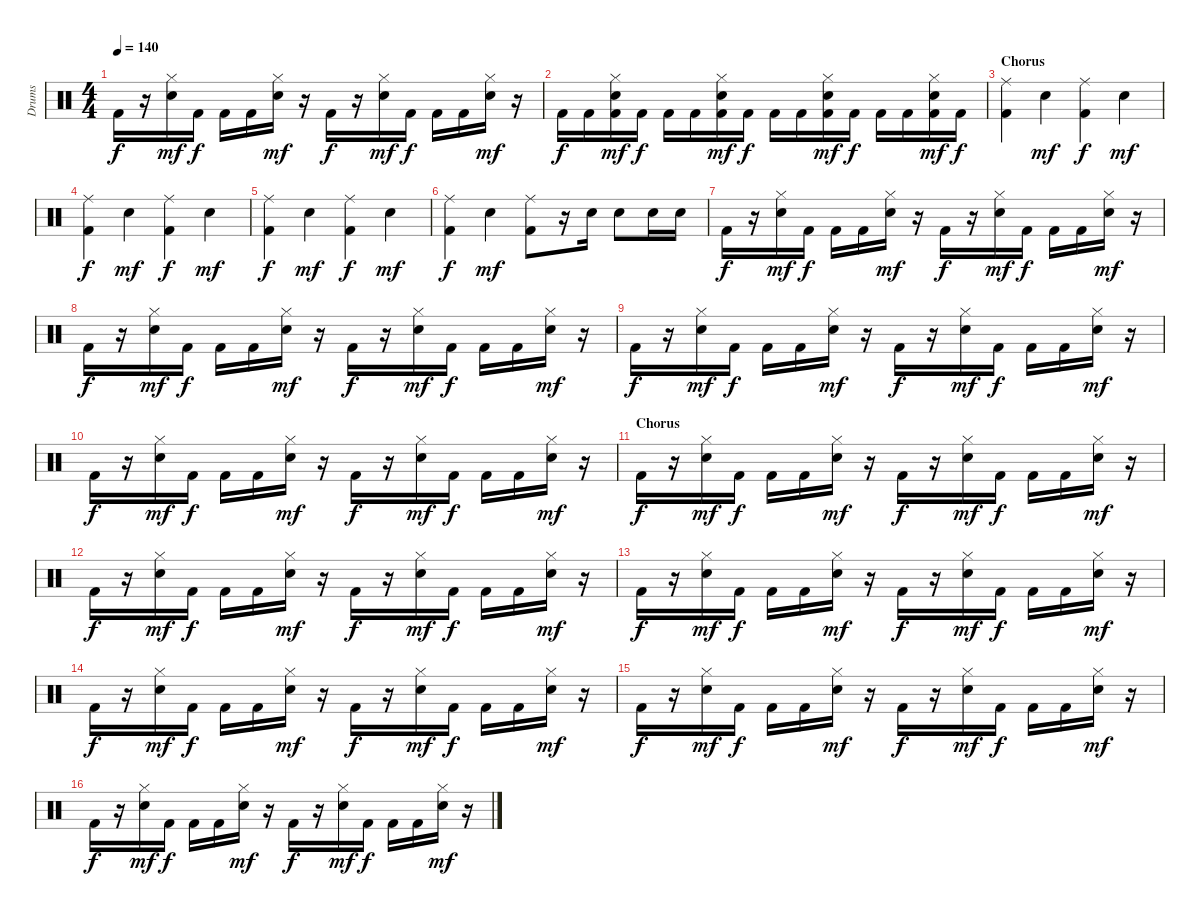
\track ("Drums" "Drums") {instrument percussion}
\staff {score}
\articulation defaults
\ts (4 4)
\tempo 140
\clef neutral
\ks c "Kick (hit) 2".16{dy f}
r.16 ("Snare (hit) 2" "Hi-Hat (closed)").16{dy mf} "Kick (hit) 2".16{dy f} "Kick (hit) 2".16 "Kick (hit) 2".16 ("Snare (hit) 2" "Hi-Hat (closed)").16{dy mf} r.16 "Kick (hit) 2".16{dy f} r.16 ("Snare (hit) 2" "Hi-Hat (closed)").16{dy mf} "Kick (hit) 2".16{dy f} "Kick (hit) 2".16 "Kick (hit) 2".16 ("Snare (hit) 2" "Hi-Hat (closed)").16{dy mf} r.16 |
"Kick (hit) 2".16{dy f} "Kick (hit) 2".16 ("Kick (hit) 2" "Snare (hit) 2" "Hi-Hat (closed)").16{dy mf} "Kick (hit) 2".16{dy f} "Kick (hit) 2".16 "Kick (hit) 2".16 ("Kick (hit) 2" "Snare (hit) 2" "Hi-Hat (closed)").16{dy mf} "Kick (hit) 2".16{dy f} "Kick (hit) 2".16 "Kick (hit) 2".16 ("Kick (hit) 2" "Snare (hit) 2" "Hi-Hat (closed)").16{dy mf} "Kick (hit) 2".16{dy f} "Kick (hit) 2".16 "Kick (hit) 2".16 ("Kick (hit) 2" "Snare (hit) 2" "Hi-Hat (closed)").16{dy mf} "Kick (hit) 2".16{dy f} |
\section ("" "Chorus")
("Kick (hit) 2" "Ride (middle)").4 "Snare (hit) 2".4{dy mf} ("Kick (hit) 2" "Ride (middle)").4{dy f} "Snare (hit) 2".4{dy mf} |
("Kick (hit) 2" "Ride (middle)").4{dy f} "Snare (hit) 2".4{dy mf} ("Kick (hit) 2" "Ride (middle)").4{dy f} "Snare (hit) 2".4{dy mf} |
("Kick (hit) 2" "Ride (middle)").4{dy f} "Snare (hit) 2".4{dy mf} ("Kick (hit) 2" "Ride (middle)").4{dy f} "Snare (hit) 2".4{dy mf} |
("Kick (hit) 2" "Ride (middle)").4{dy f} "Snare (hit) 2".4{dy mf} ("Kick (hit) 2" "Ride (middle)").8 r.16 "Snare (hit) 2".16 "Snare (hit) 2".8 "Snare (hit) 2".16 "Snare (hit) 2".16 |
"Kick (hit) 2".16{dy f} r.16 ("Snare (hit) 2" "Hi-Hat (closed)").16{dy mf} "Kick (hit) 2".16{dy f} "Kick (hit) 2".16 "Kick (hit) 2".16 ("Snare (hit) 2" "Hi-Hat (closed)").16{dy mf} r.16 "Kick (hit) 2".16{dy f} r.16 ("Snare (hit) 2" "Hi-Hat (closed)").16{dy mf} "Kick (hit) 2".16{dy f} "Kick (hit) 2".16 "Kick (hit) 2".16 ("Snare (hit) 2" "Hi-Hat (closed)").16{dy mf} r.16 |
"Kick (hit) 2".16{dy f} r.16 ("Snare (hit) 2" "Hi-Hat (closed)").16{dy mf} "Kick (hit) 2".16{dy f} "Kick (hit) 2".16 "Kick (hit) 2".16 ("Snare (hit) 2" "Hi-Hat (closed)").16{dy mf} r.16 "Kick (hit) 2".16{dy f} r.16 ("Snare (hit) 2" "Hi-Hat (closed)").16{dy mf} "Kick (hit) 2".16{dy f} "Kick (hit) 2".16 "Kick (hit) 2".16 ("Snare (hit) 2" "Hi-Hat (closed)").16{dy mf} r.16 |
"Kick (hit) 2".16{dy f} r.16 ("Snare (hit) 2" "Hi-Hat (closed)").16{dy mf} "Kick (hit) 2".16{dy f} "Kick (hit) 2".16 "Kick (hit) 2".16 ("Snare (hit) 2" "Hi-Hat (closed)").16{dy mf} r.16 "Kick (hit) 2".16{dy f} r.16 ("Snare (hit) 2" "Hi-Hat (closed)").16{dy mf} "Kick (hit) 2".16{dy f} "Kick (hit) 2".16 "Kick (hit) 2".16 ("Snare (hit) 2" "Hi-Hat (closed)").16{dy mf} r.16 |
"Kick (hit) 2".16{dy f} r.16 ("Snare (hit) 2" "Hi-Hat (closed)").16{dy mf} "Kick (hit) 2".16{dy f} "Kick (hit) 2".16 "Kick (hit) 2".16 ("Snare (hit) 2" "Hi-Hat (closed)").16{dy mf} r.16 "Kick (hit) 2".16{dy f} r.16 ("Snare (hit) 2" "Hi-Hat (closed)").16{dy mf} "Kick (hit) 2".16{dy f} "Kick (hit) 2".16 "Kick (hit) 2".16 ("Snare (hit) 2" "Hi-Hat (closed)").16{dy mf} r.16 |
\section ("" "Chorus")
"Kick (hit) 2".16{dy f} r.16 ("Snare (hit) 2" "Hi-Hat (closed)").16{dy mf} "Kick (hit) 2".16{dy f} "Kick (hit) 2".16 "Kick (hit) 2".16 ("Snare (hit) 2" "Hi-Hat (closed)").16{dy mf} r.16 "Kick (hit) 2".16{dy f} r.16 ("Snare (hit) 2" "Hi-Hat (closed)").16{dy mf} "Kick (hit) 2".16{dy f} "Kick (hit) 2".16 "Kick (hit) 2".16 ("Snare (hit) 2" "Hi-Hat (closed)").16{dy mf} r.16 |
"Kick (hit) 2".16{dy f} r.16 ("Snare (hit) 2" "Hi-Hat (closed)").16{dy mf} "Kick (hit) 2".16{dy f} "Kick (hit) 2".16 "Kick (hit) 2".16 ("Snare (hit) 2" "Hi-Hat (closed)").16{dy mf} r.16 "Kick (hit) 2".16{dy f} r.16 ("Snare (hit) 2" "Hi-Hat (closed)").16{dy mf} "Kick (hit) 2".16{dy f} "Kick (hit) 2".16 "Kick (hit) 2".16 ("Snare (hit) 2" "Hi-Hat (closed)").16{dy mf} r.16 |
"Kick (hit) 2".16{dy f} r.16 ("Snare (hit) 2" "Hi-Hat (closed)").16{dy mf} "Kick (hit) 2".16{dy f} "Kick (hit) 2".16 "Kick (hit) 2".16 ("Snare (hit) 2" "Hi-Hat (closed)").16{dy mf} r.16 "Kick (hit) 2".16{dy f} r.16 ("Snare (hit) 2" "Hi-Hat (closed)").16{dy mf} "Kick (hit) 2".16{dy f} "Kick (hit) 2".16 "Kick (hit) 2".16 ("Snare (hit) 2" "Hi-Hat (closed)").16{dy mf} r.16 |
"Kick (hit) 2".16{dy f} r.16 ("Snare (hit) 2" "Hi-Hat (closed)").16{dy mf} "Kick (hit) 2".16{dy f} "Kick (hit) 2".16 "Kick (hit) 2".16 ("Snare (hit) 2" "Hi-Hat (closed)").16{dy mf} r.16 "Kick (hit) 2".16{dy f} r.16 ("Snare (hit) 2" "Hi-Hat (closed)").16{dy mf} "Kick (hit) 2".16{dy f} "Kick (hit) 2".16 "Kick (hit) 2".16 ("Snare (hit) 2" "Hi-Hat (closed)").16{dy mf} r.16 |
"Kick (hit) 2".16{dy f} r.16 ("Snare (hit) 2" "Hi-Hat (closed)").16{dy mf} "Kick (hit) 2".16{dy f} "Kick (hit) 2".16 "Kick (hit) 2".16 ("Snare (hit) 2" "Hi-Hat (closed)").16{dy mf} r.16 "Kick (hit) 2".16{dy f} r.16 ("Snare (hit) 2" "Hi-Hat (closed)").16{dy mf} "Kick (hit) 2".16{dy f} "Kick (hit) 2".16 "Kick (hit) 2".16 ("Snare (hit) 2" "Hi-Hat (closed)").16{dy mf} r.16 |
"Kick (hit) 2".16{dy f} r.16 ("Snare (hit) 2" "Hi-Hat (closed)").16{dy mf} "Kick (hit) 2".16{dy f} "Kick (hit) 2".16 "Kick (hit) 2".16 ("Snare (hit) 2" "Hi-Hat (closed)").16{dy mf} r.16 "Kick (hit) 2".16{dy f} r.16 ("Snare (hit) 2" "Hi-Hat (closed)").16{dy mf} "Kick (hit) 2".16{dy f} "Kick (hit) 2".16 "Kick (hit) 2".16 ("Snare (hit) 2" "Hi-Hat (closed)").16{dy mf} r.16
